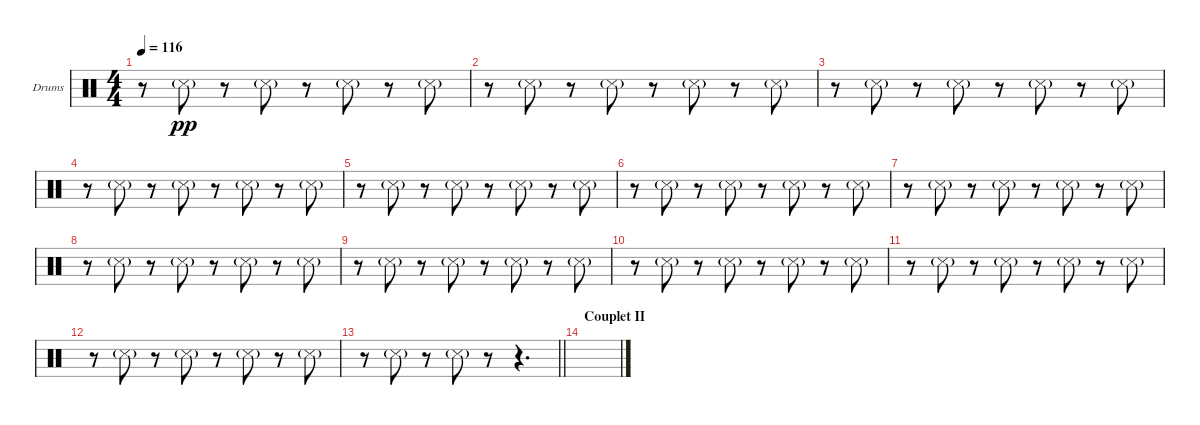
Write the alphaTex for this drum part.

\bracketExtendMode groupsimilarinstruments
\firstSystemTrackNameOrientation horizontal
\otherSystemsTrackNameOrientation horizontal
\track ("Clock" "Drums") {multiBarRest instrument percussion}
\staff {score}
\articulation defaults
\ts (4 4)
\tempo 116
\clef neutral
\ks c
r.8{dy pp} "Snare (side stick) 3"{g}.8 r.8 "Snare (side stick) 3"{g}.8 r.8 "Snare (side stick) 3"{g}.8 r.8 "Snare (side stick) 3"{g}.8 |
r.8 "Snare (side stick) 3"{g}.8 r.8 "Snare (side stick) 3"{g}.8 r.8 "Snare (side stick) 3"{g}.8 r.8 "Snare (side stick) 3"{g}.8 |
r.8 "Snare (side stick) 3"{g}.8 r.8 "Snare (side stick) 3"{g}.8 r.8 "Snare (side stick) 3"{g}.8 r.8 "Snare (side stick) 3"{g}.8 |
r.8 "Snare (side stick) 3"{g}.8 r.8 "Snare (side stick) 3"{g}.8 r.8 "Snare (side stick) 3"{g}.8 r.8 "Snare (side stick) 3"{g}.8 |
r.8 "Snare (side stick) 3"{g}.8 r.8 "Snare (side stick) 3"{g}.8 r.8 "Snare (side stick) 3"{g}.8 r.8 "Snare (side stick) 3"{g}.8 |
r.8 "Snare (side stick) 3"{g}.8 r.8 "Snare (side stick) 3"{g}.8 r.8 "Snare (side stick) 3"{g}.8 r.8 "Snare (side stick) 3"{g}.8 |
r.8 "Snare (side stick) 3"{g}.8 r.8 "Snare (side stick) 3"{g}.8 r.8 "Snare (side stick) 3"{g}.8 r.8 "Snare (side stick) 3"{g}.8 |
r.8 "Snare (side stick) 3"{g}.8 r.8 "Snare (side stick) 3"{g}.8 r.8 "Snare (side stick) 3"{g}.8 r.8 "Snare (side stick) 3"{g}.8 |
r.8 "Snare (side stick) 3"{g}.8 r.8 "Snare (side stick) 3"{g}.8 r.8 "Snare (side stick) 3"{g}.8 r.8 "Snare (side stick) 3"{g}.8 |
r.8 "Snare (side stick) 3"{g}.8 r.8 "Snare (side stick) 3"{g}.8 r.8 "Snare (side stick) 3"{g}.8 r.8 "Snare (side stick) 3"{g}.8 |
r.8 "Snare (side stick) 3"{g}.8 r.8 "Snare (side stick) 3"{g}.8 r.8 "Snare (side stick) 3"{g}.8 r.8 "Snare (side stick) 3"{g}.8 |
r.8 "Snare (side stick) 3"{g}.8 r.8 "Snare (side stick) 3"{g}.8 r.8 "Snare (side stick) 3"{g}.8 r.8 "Snare (side stick) 3"{g}.8 |
\barLineRight lightlight
r.8 "Snare (side stick) 3"{g}.8 r.8 "Snare (side stick) 3"{g}.8 r.8 r.4{d} |
\section ("" "Couplet II")
